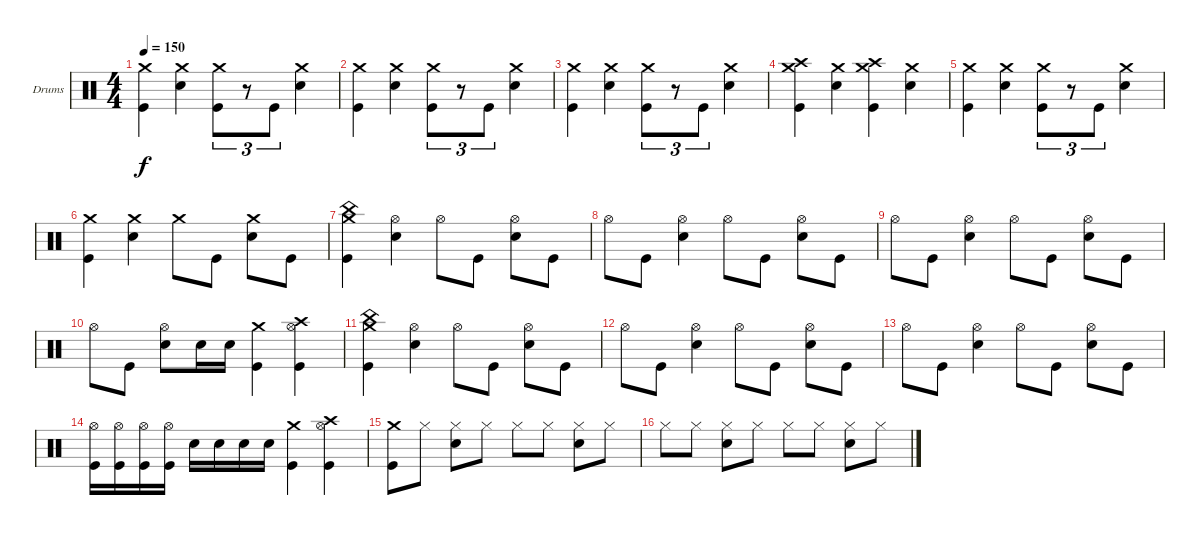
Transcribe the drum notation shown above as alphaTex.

\defaultSystemsLayout 4
\bracketExtendMode groupsimilarinstruments
\firstSystemTrackNameOrientation horizontal
\otherSystemsTrackNameOrientation horizontal
\track ("Drumkit" "Drums") {instrument percussion}
\staff {score}
\articulation defaults
\ts (4 4)
\tempo 150
\clef neutral
\ks c
("Kick (hit)" "Crash medium (hit)").4{dy f} ("Snare (hit) 2" "Crash medium (hit)").4 ("Kick (hit)" "Crash medium (hit)").8{tu (3 2)} r.8{tu (3 2)} "Kick (hit)".8{tu (3 2)} ("Snare (hit) 2" "Crash medium (hit)").4 |
("Kick (hit)" "Crash medium (hit)").4 ("Snare (hit) 2" "Crash medium (hit)").4 ("Kick (hit)" "Crash medium (hit)").8{tu (3 2)} r.8{tu (3 2)} "Kick (hit)".8{tu (3 2)} ("Snare (hit) 2" "Crash medium (hit)").4 |
("Kick (hit)" "Crash medium (hit)").4 ("Snare (hit) 2" "Crash medium (hit)").4 ("Kick (hit)" "Crash medium (hit)").8{tu (3 2)} r.8{tu (3 2)} "Kick (hit)".8{tu (3 2)} ("Snare (hit) 2" "Crash medium (hit)").4 |
("Kick (hit)" "Crash medium (hit)" "Crash high (hit)").4 ("Snare (hit) 2" "Crash medium (hit)").4 ("Kick (hit)" "Crash medium (hit)" "Crash high (hit)").4 ("Crash medium (hit)" "Snare (hit) 2").4 |
("Kick (hit)" "Crash medium (hit)").4 ("Snare (hit) 2" "Crash medium (hit)").4 ("Kick (hit)" "Crash medium (hit)").8{tu (3 2)} r.8{tu (3 2)} "Kick (hit)".8{tu (3 2)} ("Snare (hit) 2" "Crash medium (hit)").4 |
("Kick (hit)" "Crash medium (hit)").4 ("Snare (hit) 2" "Crash medium (hit)").4 "Crash medium (hit)".8 "Kick (hit)".8 ("Snare (hit) 2" "Crash medium (hit)").8 "Kick (hit)".8 |
("Crash medium (hit)" "Kick (hit)" "China (hit)").4 ("Snare (hit) 2" "Hi-Hat (open)").4 "Hi-Hat (open)".8 "Kick (hit)".8 ("Hi-Hat (open)" "Snare (hit) 2").8 "Kick (hit)".8 |
"Hi-Hat (open)".8 "Kick (hit)".8 ("Hi-Hat (open)" "Snare (hit) 2").4 "Hi-Hat (open)".8 "Kick (hit)".8 ("Hi-Hat (open)" "Snare (hit) 2").8 "Kick (hit)".8 |
"Hi-Hat (open)".8 "Kick (hit)".8 ("Hi-Hat (open)" "Snare (hit) 2").4 "Hi-Hat (open)".8 "Kick (hit)".8 ("Hi-Hat (open)" "Snare (hit) 2").8 "Kick (hit)".8 |
"Hi-Hat (open)".8 "Kick (hit)".8 ("Snare (hit) 2" "Hi-Hat (open)").8 "Snare (hit) 2".16 "Snare (hit) 2".16 ("Kick (hit)" "Crash medium (hit)").4 ("Kick (hit)" "Crash high (hit)" "Hi-Hat (open)").4 |
("Crash medium (hit)" "Kick (hit)" "China (hit)").4 ("Snare (hit) 2" "Hi-Hat (open)").4 "Hi-Hat (open)".8 "Kick (hit)".8 ("Hi-Hat (open)" "Snare (hit) 2").8 "Kick (hit)".8 |
"Hi-Hat (open)".8 "Kick (hit)".8 ("Hi-Hat (open)" "Snare (hit) 2").4 "Hi-Hat (open)".8 "Kick (hit)".8 ("Hi-Hat (open)" "Snare (hit) 2").8 "Kick (hit)".8 |
"Hi-Hat (open)".8 "Kick (hit)".8 ("Hi-Hat (open)" "Snare (hit) 2").4 "Hi-Hat (open)".8 "Kick (hit)".8 ("Hi-Hat (open)" "Snare (hit) 2").8 "Kick (hit)".8 |
("Kick (hit)" "Hi-Hat (open)").16 ("Kick (hit)" "Hi-Hat (open)").16 ("Kick (hit)" "Hi-Hat (open)").16 ("Kick (hit)" "Hi-Hat (open)").16 "Snare (hit) 2".16 "Snare (hit) 2".16 "Snare (hit) 2".16 "Snare (hit) 2".16 ("Kick (hit)" "Crash medium (hit)").4 ("Kick (hit)" "Crash high (hit)" "Hi-Hat (open)").4 |
("Kick (hit)" "Crash medium (hit)").8 "Hi-Hat (closed)".8 ("Hi-Hat (closed)" "Snare (hit) 2").8 "Hi-Hat (closed)".8 "Hi-Hat (closed)".8 "Hi-Hat (closed)".8 ("Hi-Hat (closed)" "Snare (hit) 2").8 "Hi-Hat (closed)".8 |
"Hi-Hat (closed)".8 "Hi-Hat (closed)".8 ("Hi-Hat (closed)" "Snare (hit) 2").8 "Hi-Hat (closed)".8 "Hi-Hat (closed)".8 "Hi-Hat (closed)".8 ("Hi-Hat (closed)" "Snare (hit) 2").8 "Hi-Hat (closed)".8
